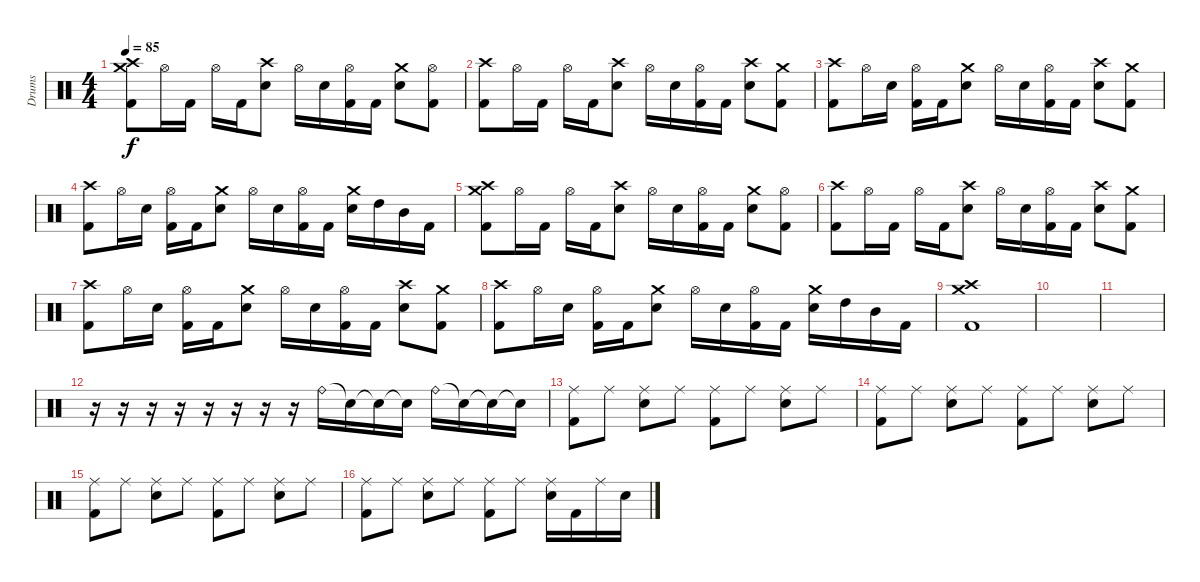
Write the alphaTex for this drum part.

\track ("Drums" "Drums") {instrument percussion}
\staff {score}
\articulation defaults
\ts (4 4)
\tempo 85
\clef neutral
\ks c
("Crash medium (hit)" "Crash high (hit)" "Kick (hit) 2").8{dy f} "Hi-Hat (open)".16 "Kick (hit) 2".16 "Hi-Hat (open)".16 "Kick (hit) 2".16 ("Crash high (hit)" "Electric Snare (hit)").8 "Hi-Hat (open)".16 "Electric Snare (hit)".16 ("Hi-Hat (open)" "Kick (hit) 2").16 "Kick (hit) 2".16 ("Crash medium (hit)" "Electric Snare (hit)").8 ("Hi-Hat (open)" "Kick (hit) 2").8 |
("Crash high (hit)" "Kick (hit) 2").8 "Hi-Hat (open)".16 "Kick (hit) 2".16 "Hi-Hat (open)".16 "Kick (hit) 2".16 ("Crash high (hit)" "Electric Snare (hit)").8 "Hi-Hat (open)".16 "Electric Snare (hit)".16 ("Hi-Hat (open)" "Kick (hit) 2").16 "Kick (hit) 2".16 ("Crash high (hit)" "Electric Snare (hit)").8 ("Crash medium (hit)" "Kick (hit) 2").8 |
("Crash high (hit)" "Kick (hit) 2").8 "Hi-Hat (open)".16 "Electric Snare (hit)".16 ("Hi-Hat (open)" "Kick (hit) 2").16 "Kick (hit) 2".16 ("Crash medium (hit)" "Electric Snare (hit)").8 "Hi-Hat (open)".16 "Electric Snare (hit)".16 ("Hi-Hat (open)" "Kick (hit) 2").16 "Kick (hit) 2".16 ("Crash high (hit)" "Electric Snare (hit)").8 ("Crash medium (hit)" "Kick (hit) 2").8 |
("Crash high (hit)" "Kick (hit) 2").8 "Hi-Hat (open)".16 "Electric Snare (hit)".16 ("Hi-Hat (open)" "Kick (hit) 2").16 "Kick (hit) 2".16 ("Crash medium (hit)" "Electric Snare (hit)").8 "Hi-Hat (open)".16 "Electric Snare (hit)".16 ("Hi-Hat (open)" "Kick (hit) 2").16 "Kick (hit) 2".16 ("Crash medium (hit)" "Electric Snare (hit)").16 "High Tom (hit)".16 "Mid Tom (hit)".16 "Kick (hit) 2".16 |
("Crash medium (hit)" "Crash high (hit)" "Kick (hit) 2").8 "Hi-Hat (open)".16 "Kick (hit) 2".16 "Hi-Hat (open)".16 "Kick (hit) 2".16 ("Crash high (hit)" "Electric Snare (hit)").8 "Hi-Hat (open)".16 "Electric Snare (hit)".16 ("Hi-Hat (open)" "Kick (hit) 2").16 "Kick (hit) 2".16 ("Crash medium (hit)" "Electric Snare (hit)").8 ("Hi-Hat (open)" "Kick (hit) 2").8 |
("Crash high (hit)" "Kick (hit) 2").8 "Hi-Hat (open)".16 "Kick (hit) 2".16 "Hi-Hat (open)".16 "Kick (hit) 2".16 ("Crash high (hit)" "Electric Snare (hit)").8 "Hi-Hat (open)".16 "Electric Snare (hit)".16 ("Hi-Hat (open)" "Kick (hit) 2").16 "Kick (hit) 2".16 ("Crash high (hit)" "Electric Snare (hit)").8 ("Crash medium (hit)" "Kick (hit) 2").8 |
("Crash high (hit)" "Kick (hit) 2").8 "Hi-Hat (open)".16 "Electric Snare (hit)".16 ("Hi-Hat (open)" "Kick (hit) 2").16 "Kick (hit) 2".16 ("Crash medium (hit)" "Electric Snare (hit)").8 "Hi-Hat (open)".16 "Electric Snare (hit)".16 ("Hi-Hat (open)" "Kick (hit) 2").16 "Kick (hit) 2".16 ("Crash high (hit)" "Electric Snare (hit)").8 ("Crash medium (hit)" "Kick (hit) 2").8 |
("Crash high (hit)" "Kick (hit) 2").8 "Hi-Hat (open)".16 "Electric Snare (hit)".16 ("Hi-Hat (open)" "Kick (hit) 2").16 "Kick (hit) 2".16 ("Crash medium (hit)" "Electric Snare (hit)").8 "Hi-Hat (open)".16 "Electric Snare (hit)".16 ("Hi-Hat (open)" "Kick (hit) 2").16 "Kick (hit) 2".16 ("Crash medium (hit)" "Electric Snare (hit)").16 "High Tom (hit)".16 "Mid Tom (hit)".16 "Kick (hit) 2".16 |
("Crash high (hit)" "Crash medium (hit)" "Kick (hit) 2").1 |
|
|
r.16 r.16 r.16 r.16 r.16 r.16 r.16 r.16 "Ride (bell)".16 "Snare (hit)"{t}.16 "Snare (hit)"{t}.16 "Snare (hit)"{t}.16 "Ride (bell)".16 "Snare (hit)"{t}.16 "Snare (hit)"{t}.16 "Snare (hit)"{t}.16 |
("Ride (middle)" "Kick (hit) 2").8 "Ride (middle)".8 ("Ride (middle)" "Snare (hit) 2").8 "Ride (middle)".8 ("Ride (middle)" "Kick (hit) 2").8 "Ride (middle)".8 ("Ride (middle)" "Snare (hit) 2").8 "Ride (middle)".8 |
("Ride (middle)" "Kick (hit) 2").8 "Ride (middle)".8 ("Ride (middle)" "Snare (hit) 2").8 "Ride (middle)".8 ("Ride (middle)" "Kick (hit) 2").8 "Ride (middle)".8 ("Ride (middle)" "Snare (hit) 2").8 "Ride (middle)".8 |
("Ride (middle)" "Kick (hit) 2").8 "Ride (middle)".8 ("Ride (middle)" "Snare (hit) 2").8 "Ride (middle)".8 ("Ride (middle)" "Kick (hit) 2").8 "Ride (middle)".8 ("Ride (middle)" "Snare (hit) 2").8 "Ride (middle)".8 |
("Ride (middle)" "Kick (hit) 2").8 "Ride (middle)".8 ("Ride (middle)" "Snare (hit) 2").8 "Ride (middle)".8 ("Ride (middle)" "Kick (hit) 2").8 "Ride (middle)".8 ("Ride (middle)" "Snare (hit) 2").16 "Kick (hit) 2".16 "Ride (middle)".16 "Snare (hit) 2".16
